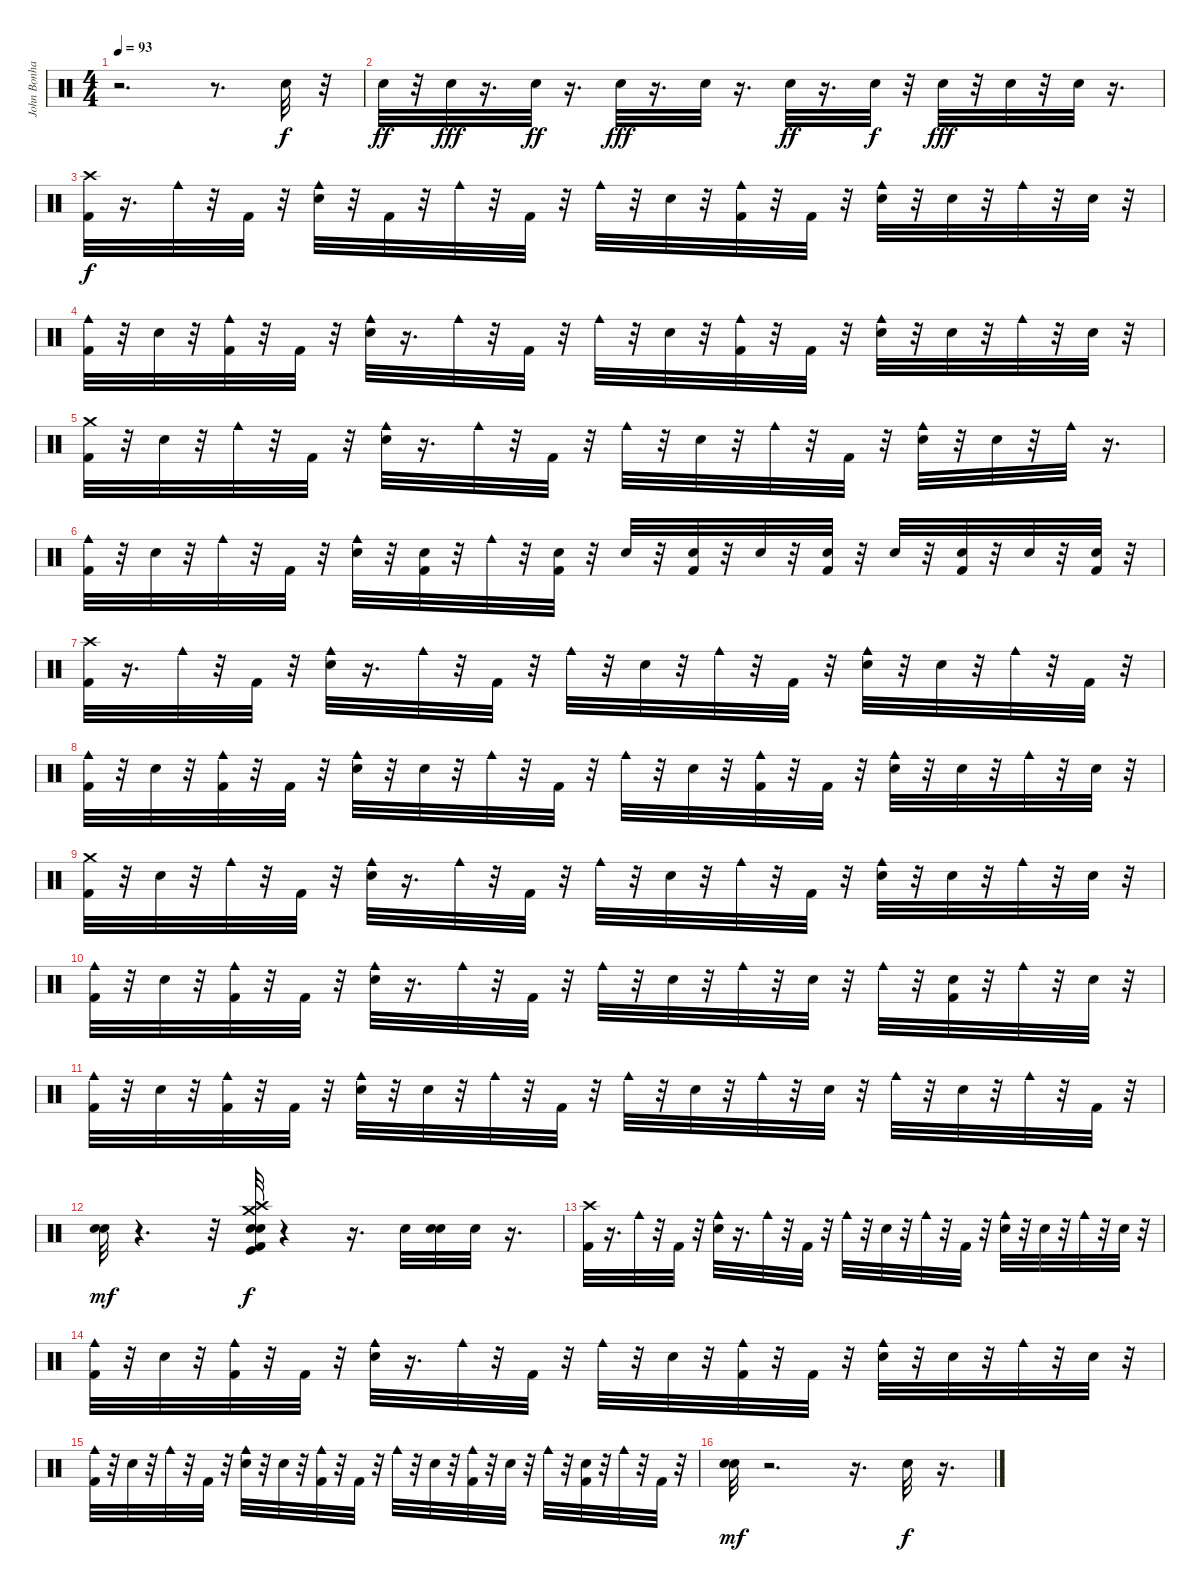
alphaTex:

\track ("John Bonham" "John Bonha") {instrument percussion}
\staff {score}
\articulation defaults
\ts (4 4)
\tempo 93
\clef neutral
\ks c
r.2{d dy f} r.8{d} "Electric Snare (hit)".32 r.32 |
"Electric Snare (hit)".32{dy ff} r.32 "Electric Snare (hit)".32{dy fff} r.16{d} "Electric Snare (hit)".32{dy ff} r.16{d} "Electric Snare (hit)".32{dy fff} r.16{d} "Electric Snare (hit)".32 r.16{d} "Electric Snare (hit)".32{dy ff} r.16{d} "Electric Snare (hit)".32{dy f} r.32 "Electric Snare (hit)".32{dy fff} r.32 "Electric Snare (hit)".32 r.32 "Electric Snare (hit)".32 r.16{d} |
("Crash high (hit)" "Kick (hit) 2").32{dy f} r.16{d} "Cowbell medium (hit)".32 r.32 "Kick (hit) 2".32 r.32 ("Cowbell medium (hit)" "Electric Snare (hit)").32 r.32 "Kick (hit) 2".32 r.32 "Cowbell medium (hit)".32 r.32 "Kick (hit) 2".32 r.32 "Cowbell medium (hit)".32 r.32 "Electric Snare (hit)".32 r.32 ("Cowbell medium (hit)" "Kick (hit) 2").32 r.32 "Kick (hit) 2".32 r.32 ("Cowbell medium (hit)" "Electric Snare (hit)").32 r.32 "Electric Snare (hit)".32 r.32 "Cowbell medium (hit)".32 r.32 "Electric Snare (hit)".32 r.32 |
("Cowbell medium (hit)" "Kick (hit) 2").32 r.32 "Electric Snare (hit)".32 r.32 ("Kick (hit) 2" "Cowbell medium (hit)").32 r.32 "Kick (hit) 2".32 r.32 ("Cowbell medium (hit)" "Electric Snare (hit)").32 r.16{d} "Cowbell medium (hit)".32 r.32 "Kick (hit) 2".32 r.32 "Cowbell medium (hit)".32 r.32 "Electric Snare (hit)".32 r.32 ("Cowbell medium (hit)" "Kick (hit) 2").32 r.32 "Kick (hit) 2".32 r.32 ("Cowbell medium (hit)" "Electric Snare (hit)").32 r.32 "Electric Snare (hit)".32 r.32 "Cowbell medium (hit)".32 r.32 "Electric Snare (hit)".32 r.32 |
("Kick (hit) 2" "Crash medium (hit)").32 r.32 "Electric Snare (hit)".32 r.32 "Cowbell medium (hit)".32 r.32 "Kick (hit) 2".32 r.32 ("Electric Snare (hit)" "Cowbell medium (hit)").32 r.16{d} "Cowbell medium (hit)".32 r.32 "Kick (hit) 2".32 r.32 "Cowbell medium (hit)".32 r.32 "Electric Snare (hit)".32 r.32 "Cowbell medium (hit)".32 r.32 "Kick (hit) 2".32 r.32 ("Electric Snare (hit)" "Cowbell medium (hit)").32 r.32 "Electric Snare (hit)".32 r.32 "Cowbell medium (hit)".32 r.16{d} |
("Kick (hit) 2" "Cowbell medium (hit)").32 r.32 "Electric Snare (hit)".32 r.32 "Cowbell medium (hit)".32 r.32 "Kick (hit) 2".32 r.32 ("Electric Snare (hit)" "Cowbell medium (hit)").32 r.32 ("Kick (hit) 2" "Electric Snare (hit)").32 r.32 "Cowbell medium (hit)".32 r.32 ("Electric Snare (hit)" "Kick (hit) 2").32 r.32 "Electric Snare (hit)".32 r.32 ("Kick (hit) 2" "Electric Snare (hit)").32 r.32 "Electric Snare (hit)".32 r.32 ("Kick (hit) 2" "Electric Snare (hit)").32 r.32 "Electric Snare (hit)".32 r.32 ("Kick (hit) 2" "Electric Snare (hit)").32 r.32 "Electric Snare (hit)".32 r.32 ("Kick (hit) 2" "Electric Snare (hit)").32 r.32 |
("Crash high (hit)" "Kick (hit) 2").32 r.16{d} "Cowbell medium (hit)".32 r.32 "Kick (hit) 2".32 r.32 ("Cowbell medium (hit)" "Electric Snare (hit)").32 r.16{d} "Cowbell medium (hit)".32 r.32 "Kick (hit) 2".32 r.32 "Cowbell medium (hit)".32 r.32 "Electric Snare (hit)".32 r.32 "Cowbell medium (hit)".32 r.32 "Kick (hit) 2".32 r.32 ("Cowbell medium (hit)" "Electric Snare (hit)").32 r.32 "Electric Snare (hit)".32 r.32 "Cowbell medium (hit)".32 r.32 "Kick (hit) 2".32 r.32 |
("Cowbell medium (hit)" "Kick (hit) 2").32 r.32 "Electric Snare (hit)".32 r.32 ("Kick (hit) 2" "Cowbell medium (hit)").32 r.32 "Kick (hit) 2".32 r.32 ("Cowbell medium (hit)" "Electric Snare (hit)").32 r.32 "Electric Snare (hit)".32 r.32 "Cowbell medium (hit)".32 r.32 "Kick (hit) 2".32 r.32 "Cowbell medium (hit)".32 r.32 "Electric Snare (hit)".32 r.32 ("Cowbell medium (hit)" "Kick (hit) 2").32 r.32 "Kick (hit) 2".32 r.32 ("Cowbell medium (hit)" "Electric Snare (hit)").32 r.32 "Electric Snare (hit)".32 r.32 "Cowbell medium (hit)".32 r.32 "Electric Snare (hit)".32 r.32 |
("Kick (hit) 2" "Crash medium (hit)").32 r.32 "Electric Snare (hit)".32 r.32 "Cowbell medium (hit)".32 r.32 "Kick (hit) 2".32 r.32 ("Electric Snare (hit)" "Cowbell medium (hit)").32 r.16{d} "Cowbell medium (hit)".32 r.32 "Kick (hit) 2".32 r.32 "Cowbell medium (hit)".32 r.32 "Electric Snare (hit)".32 r.32 "Cowbell medium (hit)".32 r.32 "Kick (hit) 2".32 r.32 ("Electric Snare (hit)" "Cowbell medium (hit)").32 r.32 "Electric Snare (hit)".32 r.32 "Cowbell medium (hit)".32 r.32 "Electric Snare (hit)".32 r.32 |
("Cowbell medium (hit)" "Kick (hit) 2").32 r.32 "Electric Snare (hit)".32 r.32 ("Kick (hit) 2" "Cowbell medium (hit)").32 r.32 "Kick (hit) 2".32 r.32 ("Cowbell medium (hit)" "Electric Snare (hit)").32 r.16{d} "Cowbell medium (hit)".32 r.32 "Kick (hit) 2".32 r.32 "Cowbell medium (hit)".32 r.32 "Electric Snare (hit)".32 r.32 "Cowbell medium (hit)".32 r.32 "Electric Snare (hit)".32 r.32 "Cowbell medium (hit)".32 r.32 ("Kick (hit) 2" "Electric Snare (hit)").32 r.32 "Cowbell medium (hit)".32 r.32 "Electric Snare (hit)".32 r.32 |
("Cowbell medium (hit)" "Kick (hit) 2").32 r.32 "Electric Snare (hit)".32 r.32 ("Kick (hit) 2" "Cowbell medium (hit)").32 r.32 "Kick (hit) 2".32 r.32 ("Cowbell medium (hit)" "Electric Snare (hit)").32 r.32 "Electric Snare (hit)".32 r.32 "Cowbell medium (hit)".32 r.32 "Kick (hit) 2".32 r.32 "Cowbell medium (hit)".32 r.32 "Electric Snare (hit)".32 r.32 "Cowbell medium (hit)".32 r.32 "Electric Snare (hit)".32 r.32 "Cowbell medium (hit)".32 r.32 "Electric Snare (hit)".32 r.32 "Cowbell medium (hit)".32 r.32 "Kick (hit) 2".32 r.32 |
("Snare (hit) 2" "Electric Snare (hit)").32{dy mf} r.4{d} r.32 ("Crash high (hit)" "Crash medium (hit)" "Electric Snare (hit)" "Kick (hit)" "Kick (hit) 2" "Snare (hit) 2").32{dy f} r.4 r.16{d} "Electric Snare (hit)".32 ("Electric Snare (hit)" "Electric Snare (hit)").32 "Electric Snare (hit)".32 r.16{d} |
("Crash high (hit)" "Kick (hit) 2").32 r.16{d} "Cowbell medium (hit)".32 r.32 "Kick (hit) 2".32 r.32 ("Cowbell medium (hit)" "Electric Snare (hit)").32 r.16{d} "Cowbell medium (hit)".32 r.32 "Kick (hit) 2".32 r.32 "Cowbell medium (hit)".32 r.32 "Electric Snare (hit)".32 r.32 "Cowbell medium (hit)".32 r.32 "Kick (hit) 2".32 r.32 ("Cowbell medium (hit)" "Electric Snare (hit)").32 r.32 "Electric Snare (hit)".32 r.32 "Cowbell medium (hit)".32 r.32 "Electric Snare (hit)".32 r.32 |
("Cowbell medium (hit)" "Kick (hit) 2").32 r.32 "Electric Snare (hit)".32 r.32 ("Kick (hit) 2" "Cowbell medium (hit)").32 r.32 "Kick (hit) 2".32 r.32 ("Cowbell medium (hit)" "Electric Snare (hit)").32 r.16{d} "Cowbell medium (hit)".32 r.32 "Kick (hit) 2".32 r.32 "Cowbell medium (hit)".32 r.32 "Electric Snare (hit)".32 r.32 ("Cowbell medium (hit)" "Kick (hit) 2").32 r.32 "Kick (hit) 2".32 r.32 ("Cowbell medium (hit)" "Electric Snare (hit)").32 r.32 "Electric Snare (hit)".32 r.32 "Cowbell medium (hit)".32 r.32 "Electric Snare (hit)".32 r.32 |
("Cowbell medium (hit)" "Kick (hit) 2").32 r.32 "Electric Snare (hit)".32 r.32 "Cowbell medium (hit)".32 r.32 "Kick (hit) 2".32 r.32 ("Cowbell medium (hit)" "Electric Snare (hit)").32 r.32 "Electric Snare (hit)".32 r.32 ("Cowbell medium (hit)" "Kick (hit) 2").32 r.32 "Kick (hit) 2".32 r.32 "Cowbell medium (hit)".32 r.32 "Electric Snare (hit)".32 r.32 ("Cowbell medium (hit)" "Kick (hit) 2").32 r.32 "Electric Snare (hit)".32 r.32 "Cowbell medium (hit)".32 r.32 ("Kick (hit) 2" "Electric Snare (hit)").32 r.32 "Cowbell medium (hit)".32 r.32 "Kick (hit) 2".32 r.32 |
("Snare (hit) 2" "Electric Snare (hit)").32{dy mf} r.2{d} r.16{d} "Snare (hit) 2".32{dy f} r.16{d}
